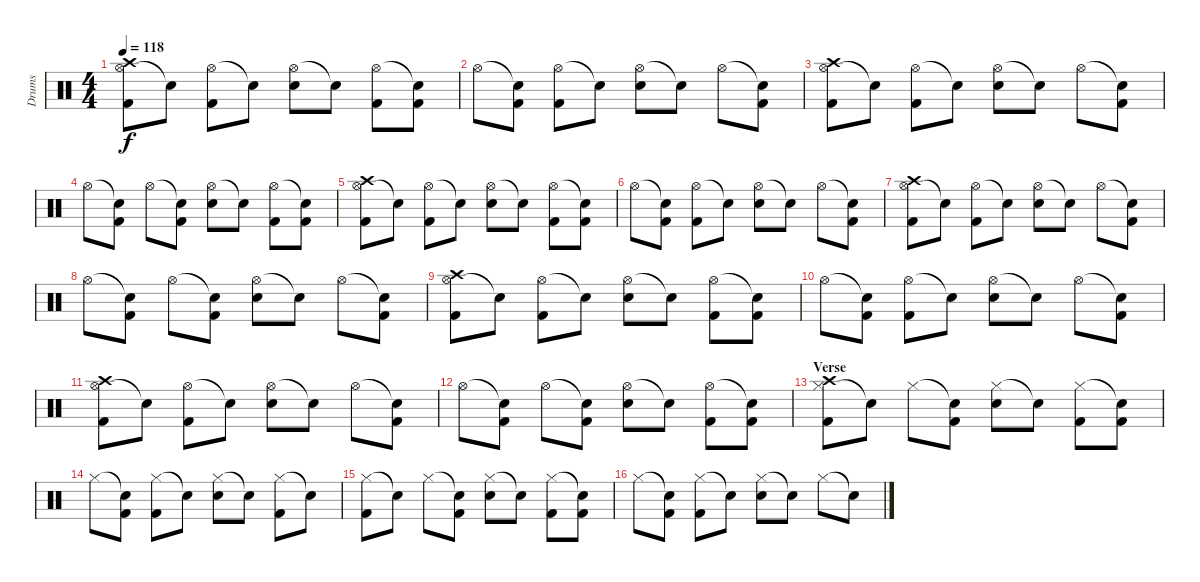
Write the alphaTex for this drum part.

\track ("Drums" "Drums") {instrument percussion}
\staff {score}
\articulation defaults
\ts (4 4)
\tempo 118
\clef neutral
\ks c
("Hi-Hat (open)" "Kick (hit) 2" "Crash high (hit)").8{dy f} "Snare (hit)"{t}.8 ("Hi-Hat (open)" "Kick (hit) 2").8 "Snare (hit)"{t}.8 ("Hi-Hat (open)" "Electric Snare (hit)").8 "Snare (hit)"{t}.8 ("Hi-Hat (open)" "Kick (hit) 2").8 ("Snare (hit)"{t} "Kick (hit) 2").8 |
"Hi-Hat (open)".8 ("Snare (hit)"{t} "Kick (hit) 2").8 ("Hi-Hat (open)" "Kick (hit) 2").8 "Snare (hit)"{t}.8 ("Hi-Hat (open)" "Electric Snare (hit)").8 "Snare (hit)"{t}.8 "Hi-Hat (open)".8 ("Snare (hit)"{t} "Kick (hit) 2").8 |
("Hi-Hat (open)" "Kick (hit) 2" "Crash high (hit)").8 "Snare (hit)"{t}.8 ("Hi-Hat (open)" "Kick (hit) 2").8 "Snare (hit)"{t}.8 ("Hi-Hat (open)" "Electric Snare (hit)").8 "Snare (hit)"{t}.8 "Hi-Hat (open)".8 ("Snare (hit)"{t} "Kick (hit) 2").8 |
"Hi-Hat (open)".8 ("Snare (hit)"{t} "Kick (hit) 2").8 "Hi-Hat (open)".8 ("Snare (hit)"{t} "Kick (hit) 2").8 ("Hi-Hat (open)" "Electric Snare (hit)").8 "Snare (hit)"{t}.8 ("Hi-Hat (open)" "Kick (hit) 2").8 ("Snare (hit)"{t} "Kick (hit) 2").8 |
("Hi-Hat (open)" "Kick (hit) 2" "Crash high (hit)").8 "Snare (hit)"{t}.8 ("Hi-Hat (open)" "Kick (hit) 2").8 "Snare (hit)"{t}.8 ("Hi-Hat (open)" "Electric Snare (hit)").8 "Snare (hit)"{t}.8 ("Hi-Hat (open)" "Kick (hit) 2").8 ("Snare (hit)"{t} "Kick (hit) 2").8 |
"Hi-Hat (open)".8 ("Snare (hit)"{t} "Kick (hit) 2").8 ("Hi-Hat (open)" "Kick (hit) 2").8 "Snare (hit)"{t}.8 ("Hi-Hat (open)" "Electric Snare (hit)").8 "Snare (hit)"{t}.8 "Hi-Hat (open)".8 ("Snare (hit)"{t} "Kick (hit) 2").8 |
("Hi-Hat (open)" "Kick (hit) 2" "Crash high (hit)").8 "Snare (hit)"{t}.8 ("Hi-Hat (open)" "Kick (hit) 2").8 "Snare (hit)"{t}.8 ("Hi-Hat (open)" "Electric Snare (hit)").8 "Snare (hit)"{t}.8 "Hi-Hat (open)".8 ("Snare (hit)"{t} "Kick (hit) 2").8 |
"Hi-Hat (open)".8 ("Snare (hit)"{t} "Kick (hit) 2").8 "Hi-Hat (open)".8 ("Snare (hit)"{t} "Kick (hit) 2").8 ("Hi-Hat (open)" "Electric Snare (hit)").8 "Snare (hit)"{t}.8 "Hi-Hat (open)".8 ("Snare (hit)"{t} "Kick (hit) 2").8 |
("Hi-Hat (open)" "Kick (hit) 2" "Crash high (hit)").8 "Snare (hit)"{t}.8 ("Hi-Hat (open)" "Kick (hit) 2").8 "Snare (hit)"{t}.8 ("Hi-Hat (open)" "Electric Snare (hit)").8 "Snare (hit)"{t}.8 ("Hi-Hat (open)" "Kick (hit) 2").8 ("Snare (hit)"{t} "Kick (hit) 2").8 |
"Hi-Hat (open)".8 ("Snare (hit)"{t} "Kick (hit) 2").8 ("Hi-Hat (open)" "Kick (hit) 2").8 "Snare (hit)"{t}.8 ("Hi-Hat (open)" "Electric Snare (hit)").8 "Snare (hit)"{t}.8 "Hi-Hat (open)".8 ("Snare (hit)"{t} "Kick (hit) 2").8 |
("Hi-Hat (open)" "Kick (hit) 2" "Crash high (hit)").8 "Snare (hit)"{t}.8 ("Hi-Hat (open)" "Kick (hit) 2").8 "Snare (hit)"{t}.8 ("Hi-Hat (open)" "Electric Snare (hit)").8 "Snare (hit)"{t}.8 "Hi-Hat (open)".8 ("Snare (hit)"{t} "Kick (hit) 2").8 |
"Hi-Hat (open)".8 ("Snare (hit)"{t} "Kick (hit) 2").8 "Hi-Hat (open)".8 ("Snare (hit)"{t} "Kick (hit) 2").8 ("Hi-Hat (open)" "Electric Snare (hit)").8 "Snare (hit)"{t}.8 ("Hi-Hat (open)" "Kick (hit) 2").8 ("Snare (hit)"{t} "Kick (hit) 2").8 |
\section ("" "Verse")
("Hi-Hat (closed)" "Kick (hit) 2" "Crash high (hit)").8 "Snare (hit)"{t}.8 "Hi-Hat (closed)".8 ("Snare (hit)"{t} "Kick (hit) 2").8 ("Hi-Hat (closed)" "Electric Snare (hit)").8 "Snare (hit)"{t}.8 ("Hi-Hat (closed)" "Kick (hit) 2").8 ("Snare (hit)"{t} "Kick (hit) 2").8 |
"Hi-Hat (closed)".8 ("Snare (hit)"{t} "Kick (hit) 2").8 ("Hi-Hat (closed)" "Kick (hit) 2").8 "Snare (hit)"{t}.8 ("Hi-Hat (closed)" "Electric Snare (hit)").8 "Snare (hit)"{t}.8 ("Hi-Hat (closed)" "Kick (hit) 2").8 "Snare (hit)"{t}.8 |
("Hi-Hat (closed)" "Kick (hit) 2").8 "Snare (hit)"{t}.8 "Hi-Hat (closed)".8 ("Snare (hit)"{t} "Kick (hit) 2").8 ("Hi-Hat (closed)" "Electric Snare (hit)").8 "Snare (hit)"{t}.8 ("Hi-Hat (closed)" "Kick (hit) 2").8 ("Snare (hit)"{t} "Kick (hit) 2").8 |
"Hi-Hat (closed)".8 ("Snare (hit)"{t} "Kick (hit) 2").8 ("Hi-Hat (closed)" "Kick (hit) 2").8 "Snare (hit)"{t}.8 ("Hi-Hat (closed)" "Electric Snare (hit)").8 "Snare (hit)"{t}.8 "Hi-Hat (closed)".8 "Snare (hit)"{t}.8
